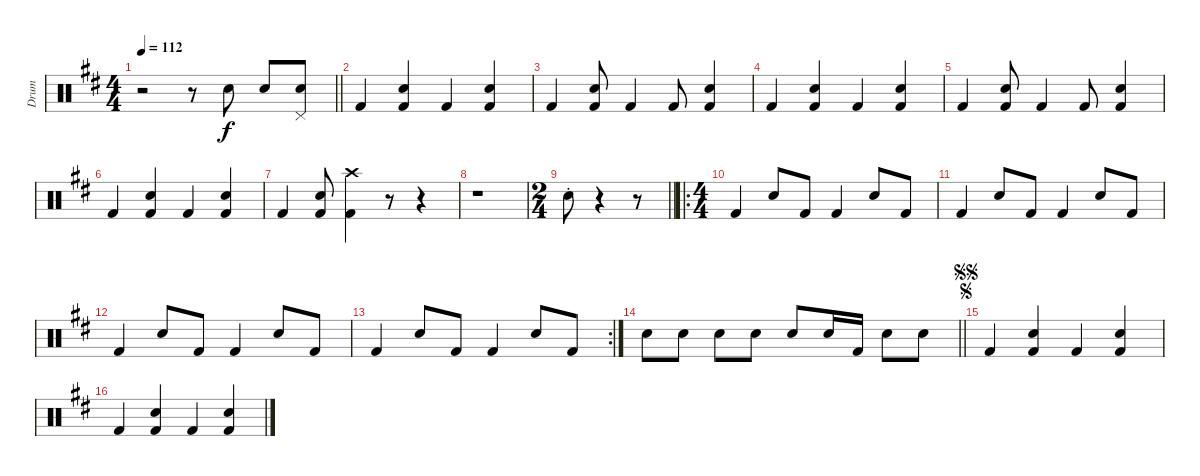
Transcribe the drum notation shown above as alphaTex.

\track ("Drum" "Drum") {instrument percussion}
\staff {score}
\articulation defaults
\ts (4 4)
\tempo 112
\clef neutral
\barLineRight lightlight
\ks d
r.2{dy f} r.8 "Electric Snare (hit)".8 "Electric Snare (hit)".8 ("Pedal Hi-Hat (hit)" "Snare (hit) 2").8 |
"Kick (hit) 2".4 ("Snare (hit) 2" "Kick (hit) 2").4 "Kick (hit) 2".4 ("Snare (hit) 2" "Kick (hit) 2").4 |
"Kick (hit) 2".4 ("Snare (hit) 2" "Kick (hit) 2").8 "Kick (hit) 2".4 "Kick (hit) 2".8 ("Snare (hit) 2" "Kick (hit) 2").4 |
"Kick (hit) 2".4 ("Snare (hit) 2" "Kick (hit) 2").4 "Kick (hit) 2".4 ("Snare (hit) 2" "Kick (hit) 2").4 |
"Kick (hit) 2".4 ("Snare (hit) 2" "Kick (hit) 2").8 "Kick (hit) 2".4 "Kick (hit) 2".8 ("Snare (hit) 2" "Kick (hit) 2").4 |
"Kick (hit) 2".4 ("Snare (hit) 2" "Kick (hit) 2").4 "Kick (hit) 2".4 ("Snare (hit) 2" "Kick (hit) 2").4 |
"Kick (hit) 2".4 ("Snare (hit) 2" "Kick (hit) 2").8 ("Crash high (hit)" "Kick (hit) 2").4 r.8 r.4 |
r.1 |
\ts (2 4)
\barLineRight lightlight "Electric Snare (hit)"{st}.8
r.4 r.8 |
\ro
\ts (4 4)
"Kick (hit) 2".4 "Snare (hit) 2".8 "Kick (hit) 2".8 "Kick (hit) 2".4 "Snare (hit) 2".8 "Kick (hit) 2".8 |
"Kick (hit) 2".4 "Snare (hit) 2".8 "Kick (hit) 2".8 "Kick (hit) 2".4 "Snare (hit) 2".8 "Kick (hit) 2".8 |
"Kick (hit) 2".4 "Snare (hit) 2".8 "Kick (hit) 2".8 "Kick (hit) 2".4 "Snare (hit) 2".8 "Kick (hit) 2".8 |
\rc 2 "Kick (hit) 2".4 "Snare (hit) 2".8 "Kick (hit) 2".8 "Kick (hit) 2".4 "Snare (hit) 2".8 "Kick (hit) 2".8
|
\barLineRight lightlight "Snare (hit) 2".8{volume 8} "Snare (hit) 2".8{volume 16} "Snare (hit) 2".8 "Snare (hit) 2".8 "Snare (hit) 2".8 "Snare (hit) 2".16 "Kick (hit) 2".16 "Snare (hit) 2".8 "Snare (hit) 2".8
|
\jump segno
\jump segnosegno "Kick (hit) 2".4
("Snare (hit) 2" "Kick (hit) 2").4 "Kick (hit) 2".4 ("Snare (hit) 2" "Kick (hit) 2").4 |
"Kick (hit) 2".4 ("Snare (hit) 2" "Kick (hit) 2").4 "Kick (hit) 2".4 ("Snare (hit) 2" "Kick (hit) 2").4
